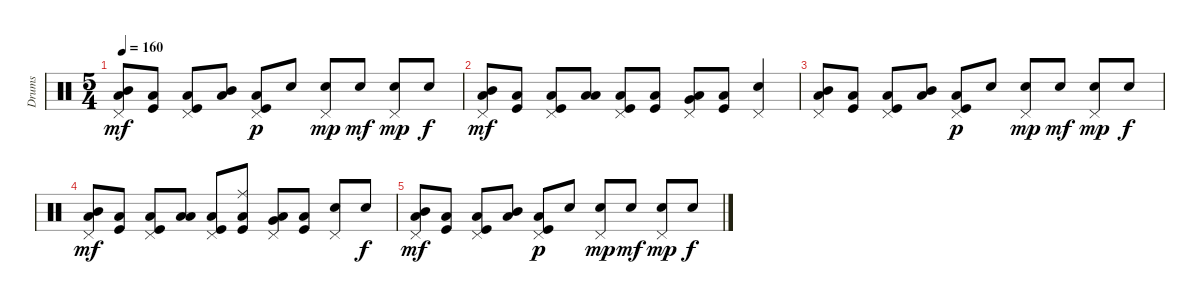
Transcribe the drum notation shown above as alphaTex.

\track ("Drums" "Drums") {instrument percussion bank 127}
\staff {score}
\articulation defaults
\ts (5 4)
\tempo 160
\clef neutral
\ks c
("Pedal Hi-Hat (hit)" "Mid Tom (hit)" "Low Floor Tom (hit)").8{dy mf} ("Low Floor Tom (hit)" "Kick (hit)").8 ("Pedal Hi-Hat (hit)" "Low Floor Tom (hit)" "Kick (hit)").8 ("Mid Tom (hit)" "Low Floor Tom (hit)").8 ("Pedal Hi-Hat (hit)" "Low Floor Tom (hit)" "Kick (hit)").8{dy p} "Snare (hit) 2".8 ("Pedal Hi-Hat (hit)" "Snare (hit) 2").8{dy mp} "Snare (hit) 2".8{dy mf} ("Pedal Hi-Hat (hit)" "Snare (hit) 2").8{dy mp} "Snare (hit) 2".8{dy f} |
("Pedal Hi-Hat (hit)" "Mid Tom (hit)" "Low Tom (hit)").8{dy mf} ("Low Floor Tom (hit)" "Kick (hit)").8 ("Pedal Hi-Hat (hit)" "Low Floor Tom (hit)" "Kick (hit)").8 ("Low Tom (hit)" "Low Tom (hit)").8 ("Pedal Hi-Hat (hit)" "Low Floor Tom (hit)" "Kick (hit)").8 ("Low Floor Tom (hit)" "Kick (hit)").8 ("Pedal Hi-Hat (hit)" "Very Low Tom (hit)" "Low Tom (hit)").8 ("Low Floor Tom (hit)" "Kick (hit)").8 ("Pedal Hi-Hat (hit)" "Snare (hit) 2").4 |
("Pedal Hi-Hat (hit)" "Mid Tom (hit)" "Low Floor Tom (hit)").8 ("Low Floor Tom (hit)" "Kick (hit)").8 ("Pedal Hi-Hat (hit)" "Low Floor Tom (hit)" "Kick (hit)").8 ("Mid Tom (hit)" "Low Floor Tom (hit)").8 ("Pedal Hi-Hat (hit)" "Low Floor Tom (hit)" "Kick (hit)").8{dy p} "Snare (hit) 2".8 ("Pedal Hi-Hat (hit)" "Snare (hit) 2").8{dy mp} "Snare (hit) 2".8{dy mf} ("Pedal Hi-Hat (hit)" "Snare (hit) 2").8{dy mp} "Snare (hit) 2".8{dy f} |
("Pedal Hi-Hat (hit)" "Mid Tom (hit)" "Low Tom (hit)").8{dy mf} ("Low Floor Tom (hit)" "Kick (hit)").8 ("Pedal Hi-Hat (hit)" "Low Floor Tom (hit)" "Kick (hit)").8 ("Low Tom (hit)" "Low Tom (hit)").8 ("Pedal Hi-Hat (hit)" "Low Floor Tom (hit)" "Kick (hit)").8 ("Ride (middle)" "Low Floor Tom (hit)" "Kick (hit)").8 ("Pedal Hi-Hat (hit)" "Very Low Tom (hit)" "Low Tom (hit)").8 ("Low Floor Tom (hit)" "Kick (hit)").8 ("Pedal Hi-Hat (hit)" "Snare (hit) 2").8 "Snare (hit) 2".8{dy f} |
("Pedal Hi-Hat (hit)" "Mid Tom (hit)" "Low Floor Tom (hit)").8{dy mf} ("Low Floor Tom (hit)" "Kick (hit)").8 ("Pedal Hi-Hat (hit)" "Low Floor Tom (hit)" "Kick (hit)").8 ("Mid Tom (hit)" "Low Floor Tom (hit)").8 ("Pedal Hi-Hat (hit)" "Low Floor Tom (hit)" "Kick (hit)").8{dy p} "Snare (hit) 2".8 ("Pedal Hi-Hat (hit)" "Snare (hit) 2").8{dy mp} "Snare (hit) 2".8{dy mf} ("Pedal Hi-Hat (hit)" "Snare (hit) 2").8{dy mp} "Snare (hit) 2".8{dy f}
